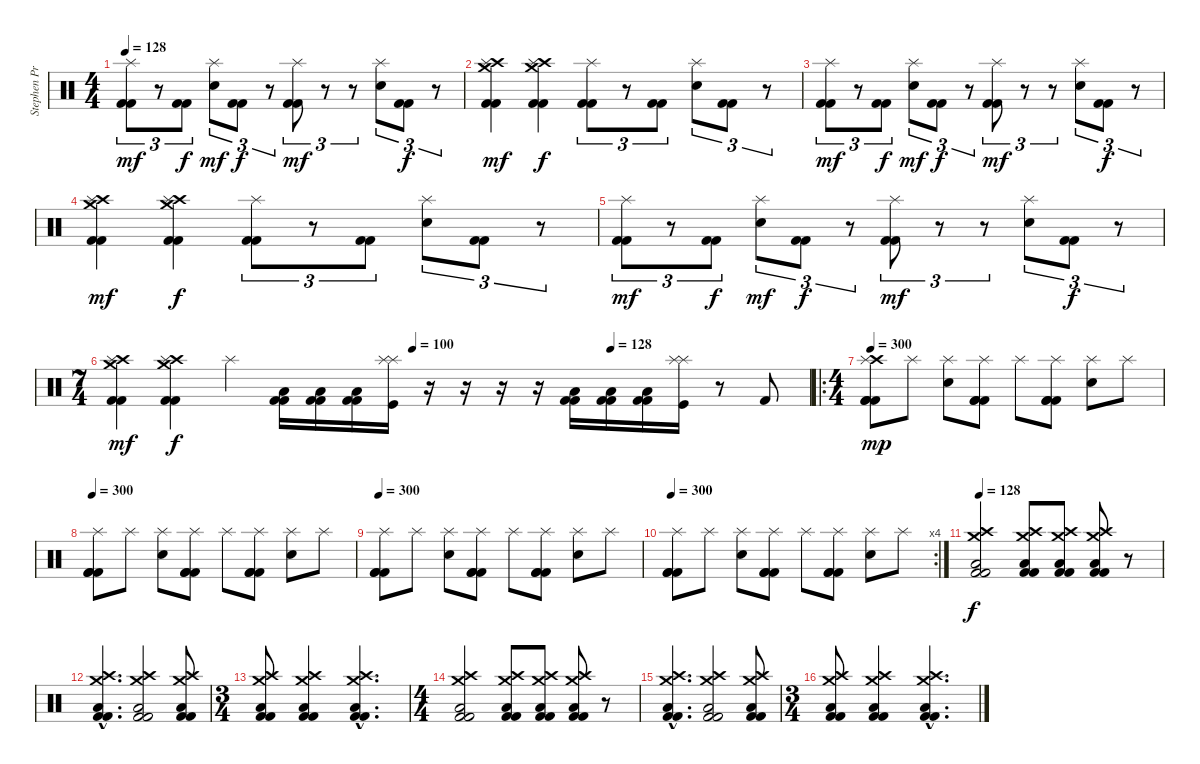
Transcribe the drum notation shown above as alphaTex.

\track ("Stephen Priestly  (Drums)" "Stephen Pr") {instrument percussion}
\staff {score}
\articulation defaults
\ts (4 4)
\tempo 128
\clef neutral
\ks c
("Splash (hit)" "Kick (hit) 2" "Kick (hit) 2").8{tu (3 2) dy mf} r.8{tu (3 2)} ("Kick (hit) 2" "Kick (hit) 2").8{tu (3 2) dy f} ("Splash (hit)" "Electric Snare (hit)").8{tu (3 2) dy mf} ("Kick (hit) 2" "Kick (hit) 2").8{tu (3 2) dy f} r.8{tu (3 2)} ("Splash (hit)" "Kick (hit) 2" "Kick (hit) 2").8{tu (3 2) dy mf} r.8{tu (3 2)} r.8{tu (3 2)} ("Splash (hit)" "Electric Snare (hit)").8{tu (3 2)} ("Kick (hit) 2" "Kick (hit) 2").8{tu (3 2) dy f} r.8{tu (3 2)} |
("Crash medium (hit)" "Crash high (hit)" "Splash (hit)" "Kick (hit) 2" "Kick (hit) 2").4{dy mf} ("Crash medium (hit)" "Crash high (hit)" "Splash (hit)" "Kick (hit) 2" "Kick (hit) 2").4{dy f} ("Splash (hit)" "Kick (hit) 2" "Kick (hit) 2").8{tu (3 2)} r.8{tu (3 2)} ("Kick (hit) 2" "Kick (hit) 2").8{tu (3 2)} ("Splash (hit)" "Electric Snare (hit)").8{tu (3 2)} ("Kick (hit) 2" "Kick (hit) 2").8{tu (3 2)} r.8{tu (3 2)} |
("Splash (hit)" "Kick (hit) 2" "Kick (hit) 2").8{tu (3 2) dy mf} r.8{tu (3 2)} ("Kick (hit) 2" "Kick (hit) 2").8{tu (3 2) dy f} ("Splash (hit)" "Electric Snare (hit)").8{tu (3 2) dy mf} ("Kick (hit) 2" "Kick (hit) 2").8{tu (3 2) dy f} r.8{tu (3 2)} ("Splash (hit)" "Kick (hit) 2" "Kick (hit) 2").8{tu (3 2) dy mf} r.8{tu (3 2)} r.8{tu (3 2)} ("Splash (hit)" "Electric Snare (hit)").8{tu (3 2)} ("Kick (hit) 2" "Kick (hit) 2").8{tu (3 2) dy f} r.8{tu (3 2)} |
("Crash medium (hit)" "Crash high (hit)" "Splash (hit)" "Kick (hit) 2" "Kick (hit) 2").4{dy mf} ("Crash medium (hit)" "Crash high (hit)" "Splash (hit)" "Kick (hit) 2" "Kick (hit) 2").4{dy f} ("Splash (hit)" "Kick (hit) 2" "Kick (hit) 2").8{tu (3 2)} r.8{tu (3 2)} ("Kick (hit) 2" "Kick (hit) 2").8{tu (3 2)} ("Splash (hit)" "Electric Snare (hit)").8{tu (3 2)} ("Kick (hit) 2" "Kick (hit) 2").8{tu (3 2)} r.8{tu (3 2)} |
("Splash (hit)" "Kick (hit) 2" "Kick (hit) 2").8{tu (3 2) dy mf} r.8{tu (3 2)} ("Kick (hit) 2" "Kick (hit) 2").8{tu (3 2) dy f} ("Splash (hit)" "Electric Snare (hit)").8{tu (3 2) dy mf} ("Kick (hit) 2" "Kick (hit) 2").8{tu (3 2) dy f} r.8{tu (3 2)} ("Splash (hit)" "Kick (hit) 2" "Kick (hit) 2").8{tu (3 2) dy mf} r.8{tu (3 2)} r.8{tu (3 2)} ("Splash (hit)" "Electric Snare (hit)").8{tu (3 2)} ("Kick (hit) 2" "Kick (hit) 2").8{tu (3 2) dy f} r.8{tu (3 2)} |
\ts (7 4)
\tempo (100 0.42857142857142855)
\tempo (128 0.7142857142857143)
("Crash medium (hit)" "Crash high (hit)" "Splash (hit)" "Kick (hit) 2" "Kick (hit) 2").4{dy mf} ("Crash medium (hit)" "Crash high (hit)" "Splash (hit)" "Kick (hit) 2" "Kick (hit) 2").4{dy f} "Splash (hit)".4 ("Kick (hit) 2" "Low Floor Tom (hit)" "Kick (hit) 2").16 ("Kick (hit) 2" "Low Floor Tom (hit)" "Kick (hit) 2").16 ("Kick (hit) 2" "Low Floor Tom (hit)" "Kick (hit) 2").16 ("Splash (hit)" "Splash (hit)" "Kick (hit)").16 r.16 r.16 r.16 r.16 ("Kick (hit) 2" "Low Floor Tom (hit)" "Kick (hit) 2").16 ("Kick (hit) 2" "Low Floor Tom (hit)" "Kick (hit) 2").16 ("Kick (hit) 2" "Low Floor Tom (hit)" "Kick (hit) 2").16 ("Splash (hit)" "Splash (hit)" "Kick (hit)").16 r.8 "Kick (hit) 2".8 |
\ro
\ts (4 4)
\tempo 300
("Crash high (hit)" "Splash (hit)" "Kick (hit) 2" "Kick (hit) 2" "Kick (hit) 2").8{dy mp} "Splash (hit)".8 ("Splash (hit)" "Electric Snare (hit)").8 ("Splash (hit)" "Kick (hit) 2" "Kick (hit) 2" "Kick (hit) 2").8 "Splash (hit)".8 ("Splash (hit)" "Kick (hit) 2" "Kick (hit) 2" "Kick (hit) 2").8 ("Splash (hit)" "Electric Snare (hit)").8 "Splash (hit)".8 |
\tempo 300
("Splash (hit)" "Kick (hit) 2" "Kick (hit) 2" "Kick (hit) 2").8 "Splash (hit)".8 ("Splash (hit)" "Electric Snare (hit)").8 ("Splash (hit)" "Kick (hit) 2" "Kick (hit) 2" "Kick (hit) 2").8 "Splash (hit)".8 ("Splash (hit)" "Kick (hit) 2" "Kick (hit) 2" "Kick (hit) 2").8 ("Splash (hit)" "Electric Snare (hit)").8 "Splash (hit)".8 |
\tempo 300
("Splash (hit)" "Kick (hit) 2" "Kick (hit) 2" "Kick (hit) 2").8 "Splash (hit)".8 ("Splash (hit)" "Electric Snare (hit)").8 ("Splash (hit)" "Kick (hit) 2" "Kick (hit) 2" "Kick (hit) 2").8 "Splash (hit)".8 ("Splash (hit)" "Kick (hit) 2" "Kick (hit) 2" "Kick (hit) 2").8 ("Splash (hit)" "Electric Snare (hit)").8 "Splash (hit)".8 |
\rc 4
\tempo 300
("Splash (hit)" "Kick (hit) 2" "Kick (hit) 2" "Kick (hit) 2").8 "Splash (hit)".8 ("Splash (hit)" "Electric Snare (hit)").8 ("Splash (hit)" "Kick (hit) 2" "Kick (hit) 2" "Kick (hit) 2").8 "Splash (hit)".8 ("Splash (hit)" "Kick (hit) 2" "Kick (hit) 2" "Kick (hit) 2").8 ("Splash (hit)" "Electric Snare (hit)").8 "Splash (hit)".8 |
\tempo 128
("Low Floor Tom (hit)" "Kick (hit) 2" "Crash high (hit)" "Crash medium (hit)" "Kick (hit) 2").2{dy f} ("Low Floor Tom (hit)" "Kick (hit) 2" "Crash high (hit)" "Crash medium (hit)" "Kick (hit) 2").8 ("Low Floor Tom (hit)" "Kick (hit) 2" "Crash high (hit)" "Crash medium (hit)" "Kick (hit) 2").8 ("Low Floor Tom (hit)" "Kick (hit) 2" "Crash high (hit)" "Crash medium (hit)" "Kick (hit) 2").8 r.8 |
("Low Floor Tom (hit)"{hac} "Kick (hit) 2"{hac} "Crash high (hit)"{hac} "Crash medium (hit)"{hac} "Kick (hit) 2"{hac}).4{d} ("Low Floor Tom (hit)" "Kick (hit) 2" "Crash high (hit)" "Crash medium (hit)" "Kick (hit) 2").2 ("Low Floor Tom (hit)" "Kick (hit) 2" "Crash high (hit)" "Crash medium (hit)" "Kick (hit) 2").8 |
\ts (3 4)
("Low Floor Tom (hit)" "Kick (hit) 2" "Crash high (hit)" "Crash medium (hit)" "Kick (hit) 2").8 ("Low Floor Tom (hit)" "Kick (hit) 2" "Crash high (hit)" "Crash medium (hit)" "Kick (hit) 2").4 ("Low Floor Tom (hit)"{hac} "Kick (hit) 2"{hac} "Crash high (hit)"{hac} "Crash medium (hit)"{hac} "Kick (hit) 2"{hac}).4{d} |
\ts (4 4)
("Low Floor Tom (hit)" "Kick (hit) 2" "Crash high (hit)" "Crash medium (hit)" "Kick (hit) 2").2 ("Low Floor Tom (hit)" "Kick (hit) 2" "Crash high (hit)" "Crash medium (hit)" "Kick (hit) 2").8 ("Low Floor Tom (hit)" "Kick (hit) 2" "Crash high (hit)" "Crash medium (hit)" "Kick (hit) 2").8 ("Low Floor Tom (hit)" "Kick (hit) 2" "Crash high (hit)" "Crash medium (hit)" "Kick (hit) 2").8 r.8 |
("Low Floor Tom (hit)"{hac} "Kick (hit) 2"{hac} "Crash high (hit)"{hac} "Crash medium (hit)"{hac} "Kick (hit) 2"{hac}).4{d} ("Low Floor Tom (hit)" "Kick (hit) 2" "Crash high (hit)" "Crash medium (hit)" "Kick (hit) 2").2 ("Low Floor Tom (hit)" "Kick (hit) 2" "Crash high (hit)" "Crash medium (hit)" "Kick (hit) 2").8 |
\ts (3 4)
("Low Floor Tom (hit)" "Kick (hit) 2" "Crash high (hit)" "Crash medium (hit)" "Kick (hit) 2").8 ("Low Floor Tom (hit)" "Kick (hit) 2" "Crash high (hit)" "Crash medium (hit)" "Kick (hit) 2").4 ("Low Floor Tom (hit)"{hac} "Kick (hit) 2"{hac} "Crash high (hit)"{hac} "Crash medium (hit)"{hac} "Kick (hit) 2"{hac}).4{d}
